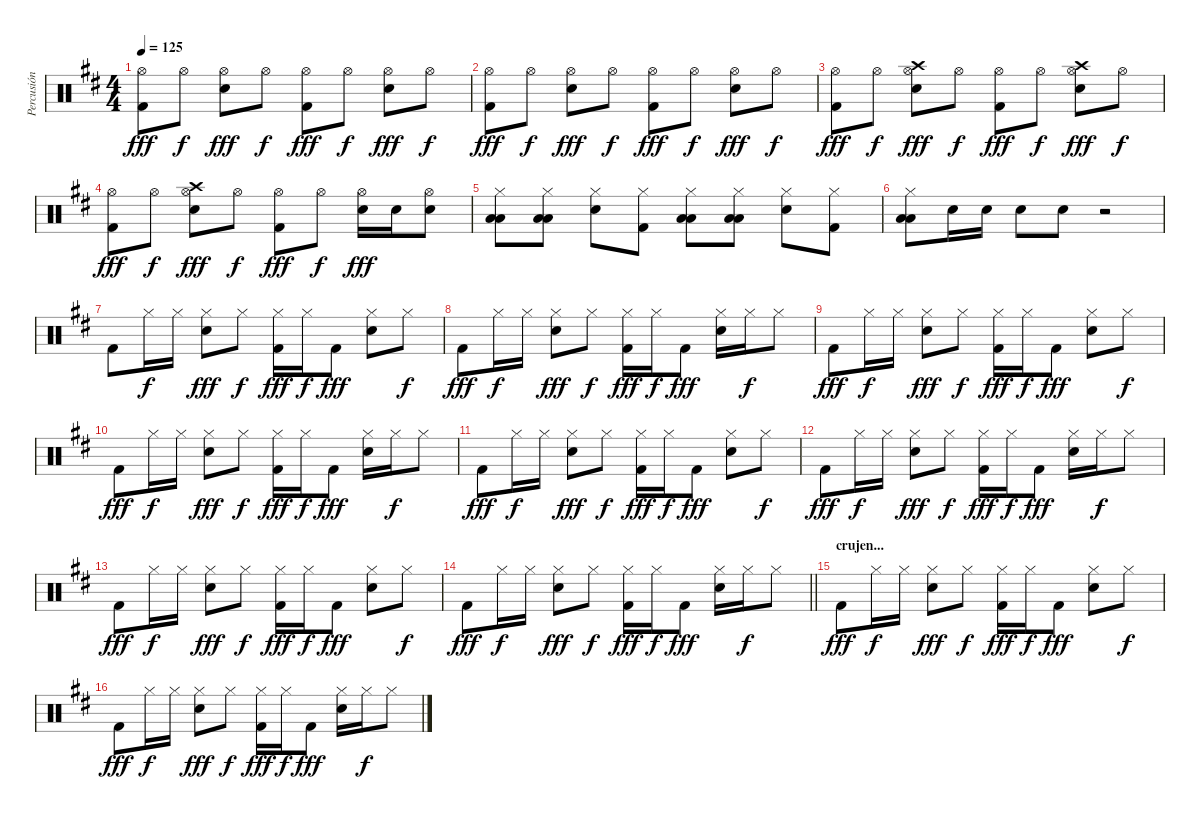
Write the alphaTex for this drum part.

\track ("Percusión" "Percusión") {instrument percussion}
\staff {score}
\articulation defaults
\ts (4 4)
\tempo 125
\clef neutral
\ks d
("Hi-Hat (open)" "Kick (hit) 2").8{dy fff} "Hi-Hat (open)".8{dy f} ("Hi-Hat (open)" "Electric Snare (hit)").8{dy fff} "Hi-Hat (open)".8{dy f} ("Hi-Hat (open)" "Kick (hit) 2").8{dy fff} "Hi-Hat (open)".8{dy f} ("Hi-Hat (open)" "Electric Snare (hit)").8{dy fff} "Hi-Hat (open)".8{dy f} |
("Hi-Hat (open)" "Kick (hit) 2").8{dy fff} "Hi-Hat (open)".8{dy f} ("Hi-Hat (open)" "Electric Snare (hit)").8{dy fff} "Hi-Hat (open)".8{dy f} ("Hi-Hat (open)" "Kick (hit) 2").8{dy fff} "Hi-Hat (open)".8{dy f} ("Hi-Hat (open)" "Electric Snare (hit)").8{dy fff} "Hi-Hat (open)".8{dy f} |
("Hi-Hat (open)" "Kick (hit) 2").8{dy fff} "Hi-Hat (open)".8{dy f} ("Crash high (hit)" "Hi-Hat (open)" "Electric Snare (hit)").8{dy fff} "Hi-Hat (open)".8{dy f} ("Hi-Hat (open)" "Kick (hit) 2").8{dy fff} "Hi-Hat (open)".8{dy f} ("Crash high (hit)" "Hi-Hat (open)" "Electric Snare (hit)").8{dy fff} "Hi-Hat (open)".8{dy f} |
("Hi-Hat (open)" "Kick (hit) 2").8{dy fff} "Hi-Hat (open)".8{dy f} ("Crash high (hit)" "Hi-Hat (open)" "Electric Snare (hit)").8{dy fff} "Hi-Hat (open)".8{dy f} ("Hi-Hat (open)" "Kick (hit) 2").8{dy fff} "Hi-Hat (open)".8{dy f} ("Hi-Hat (open)" "Electric Snare (hit)").16{dy fff} "Electric Snare (hit)".16 ("Hi-Hat (open)" "Electric Snare (hit)").8 |
("Hi-Hat (closed)" "Low Tom (hit)" "Low Tom (hit)").8 ("Hi-Hat (closed)" "Low Tom (hit)" "Low Tom (hit)").8 ("Hi-Hat (closed)" "Electric Snare (hit)").8 ("Hi-Hat (closed)" "Kick (hit) 2").8 ("Hi-Hat (closed)" "Low Tom (hit)" "Low Tom (hit)").8 ("Hi-Hat (closed)" "Low Tom (hit)" "Low Tom (hit)").8 ("Hi-Hat (closed)" "Electric Snare (hit)").8 ("Hi-Hat (closed)" "Kick (hit) 2").8 |
("Hi-Hat (closed)" "Low Tom (hit)" "Low Tom (hit)").8 "Electric Snare (hit)".16 "Electric Snare (hit)".16 "Electric Snare (hit)".8 "Electric Snare (hit)".8 r.2 |
"Kick (hit) 2".8 "Hi-Hat (closed)".16{dy f} "Hi-Hat (closed)".16 ("Hi-Hat (closed)" "Electric Snare (hit)").8{dy fff} "Hi-Hat (closed)".8{dy f} ("Hi-Hat (closed)" "Kick (hit) 2").16{dy fff} "Hi-Hat (closed)".16{dy f} "Kick (hit) 2".8{dy fff} ("Hi-Hat (closed)" "Electric Snare (hit)").8 "Hi-Hat (closed)".8{dy f} |
"Kick (hit) 2".8{dy fff} "Hi-Hat (closed)".16{dy f} "Hi-Hat (closed)".16 ("Hi-Hat (closed)" "Electric Snare (hit)").8{dy fff} "Hi-Hat (closed)".8{dy f} ("Hi-Hat (closed)" "Kick (hit) 2").16{dy fff} "Hi-Hat (closed)".16{dy f} "Kick (hit) 2".8{dy fff} ("Hi-Hat (closed)" "Electric Snare (hit)").16 "Hi-Hat (closed)".16{dy f} "Hi-Hat (closed)".8 |
"Kick (hit) 2".8{dy fff} "Hi-Hat (closed)".16{dy f} "Hi-Hat (closed)".16 ("Hi-Hat (closed)" "Electric Snare (hit)").8{dy fff} "Hi-Hat (closed)".8{dy f} ("Hi-Hat (closed)" "Kick (hit) 2").16{dy fff} "Hi-Hat (closed)".16{dy f} "Kick (hit) 2".8{dy fff} ("Hi-Hat (closed)" "Electric Snare (hit)").8 "Hi-Hat (closed)".8{dy f} |
"Kick (hit) 2".8{dy fff} "Hi-Hat (closed)".16{dy f} "Hi-Hat (closed)".16 ("Hi-Hat (closed)" "Electric Snare (hit)").8{dy fff} "Hi-Hat (closed)".8{dy f} ("Hi-Hat (closed)" "Kick (hit) 2").16{dy fff} "Hi-Hat (closed)".16{dy f} "Kick (hit) 2".8{dy fff} ("Hi-Hat (closed)" "Electric Snare (hit)").16 "Hi-Hat (closed)".16{dy f} "Hi-Hat (closed)".8 |
"Kick (hit) 2".8{dy fff} "Hi-Hat (closed)".16{dy f} "Hi-Hat (closed)".16 ("Hi-Hat (closed)" "Electric Snare (hit)").8{dy fff} "Hi-Hat (closed)".8{dy f} ("Hi-Hat (closed)" "Kick (hit) 2").16{dy fff} "Hi-Hat (closed)".16{dy f} "Kick (hit) 2".8{dy fff} ("Hi-Hat (closed)" "Electric Snare (hit)").8 "Hi-Hat (closed)".8{dy f} |
"Kick (hit) 2".8{dy fff} "Hi-Hat (closed)".16{dy f} "Hi-Hat (closed)".16 ("Hi-Hat (closed)" "Electric Snare (hit)").8{dy fff} "Hi-Hat (closed)".8{dy f} ("Hi-Hat (closed)" "Kick (hit) 2").16{dy fff} "Hi-Hat (closed)".16{dy f} "Kick (hit) 2".8{dy fff} ("Hi-Hat (closed)" "Electric Snare (hit)").16 "Hi-Hat (closed)".16{dy f} "Hi-Hat (closed)".8 |
"Kick (hit) 2".8{dy fff} "Hi-Hat (closed)".16{dy f} "Hi-Hat (closed)".16 ("Hi-Hat (closed)" "Electric Snare (hit)").8{dy fff} "Hi-Hat (closed)".8{dy f} ("Hi-Hat (closed)" "Kick (hit) 2").16{dy fff} "Hi-Hat (closed)".16{dy f} "Kick (hit) 2".8{dy fff} ("Hi-Hat (closed)" "Electric Snare (hit)").8 "Hi-Hat (closed)".8{dy f} |
\barLineRight lightlight "Kick (hit) 2".8{dy fff} "Hi-Hat (closed)".16{dy f} "Hi-Hat (closed)".16
("Hi-Hat (closed)" "Electric Snare (hit)").8{dy fff} "Hi-Hat (closed)".8{dy f} ("Hi-Hat (closed)" "Kick (hit) 2").16{dy fff} "Hi-Hat (closed)".16{dy f} "Kick (hit) 2".8{dy fff} ("Hi-Hat (closed)" "Electric Snare (hit)").16 "Hi-Hat (closed)".16{dy f} "Hi-Hat (closed)".8 |
\section ("" "crujen...")
"Kick (hit) 2".8{dy fff} "Hi-Hat (closed)".16{dy f} "Hi-Hat (closed)".16 ("Hi-Hat (closed)" "Electric Snare (hit)").8{dy fff} "Hi-Hat (closed)".8{dy f} ("Hi-Hat (closed)" "Kick (hit) 2").16{dy fff} "Hi-Hat (closed)".16{dy f} "Kick (hit) 2".8{dy fff} ("Hi-Hat (closed)" "Electric Snare (hit)").8 "Hi-Hat (closed)".8{dy f} |
"Kick (hit) 2".8{dy fff} "Hi-Hat (closed)".16{dy f} "Hi-Hat (closed)".16 ("Hi-Hat (closed)" "Electric Snare (hit)").8{dy fff} "Hi-Hat (closed)".8{dy f} ("Hi-Hat (closed)" "Kick (hit) 2").16{dy fff} "Hi-Hat (closed)".16{dy f} "Kick (hit) 2".8{dy fff} ("Hi-Hat (closed)" "Electric Snare (hit)").16 "Hi-Hat (closed)".16{dy f} "Hi-Hat (closed)".8
